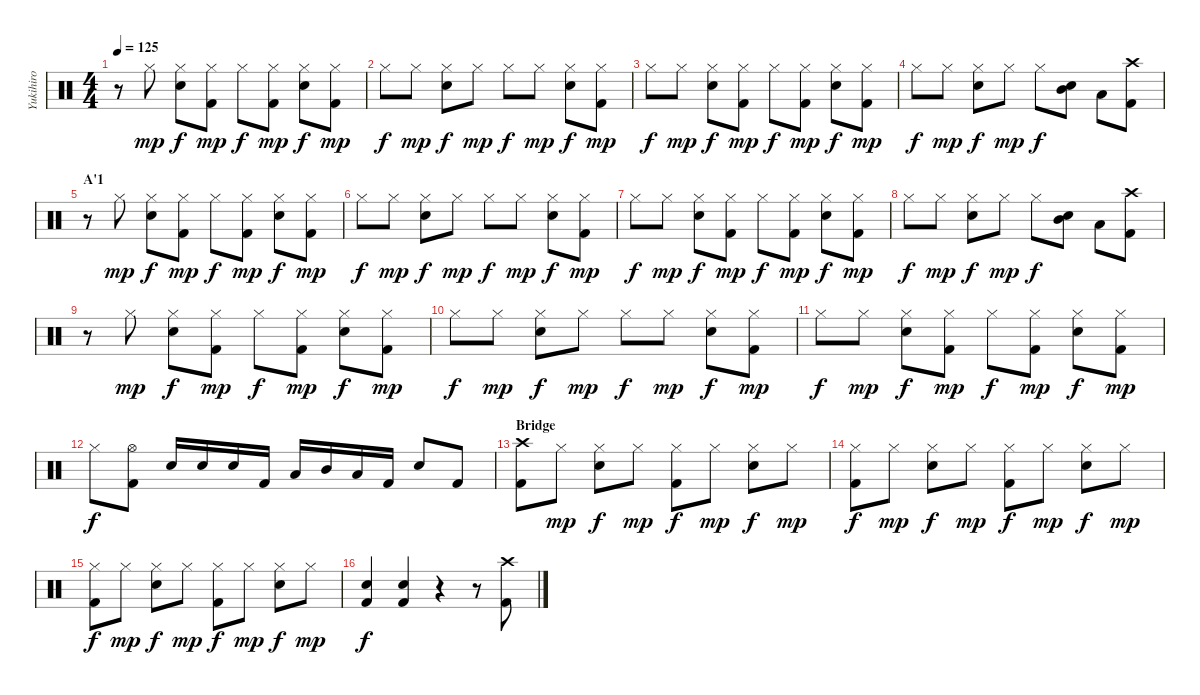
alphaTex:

\track ("Yukihiro" "Yukihiro") {instrument percussion}
\staff {score}
\articulation defaults
\ts (4 4)
\tempo 125
\clef neutral
\ks c
r.8{dy f} "Hi-Hat (closed)".8{dy mp} ("Hi-Hat (closed)" "Electric Snare (hit)").8{dy f} ("Hi-Hat (closed)" "Kick (hit) 2").8{dy mp} "Hi-Hat (closed)".8{dy f} ("Hi-Hat (closed)" "Kick (hit) 2").8{dy mp} ("Hi-Hat (closed)" "Electric Snare (hit)").8{dy f} ("Hi-Hat (closed)" "Kick (hit) 2").8{dy mp} |
"Hi-Hat (closed)".8{dy f} "Hi-Hat (closed)".8{dy mp} ("Hi-Hat (closed)" "Electric Snare (hit)").8{dy f} "Hi-Hat (closed)".8{dy mp} "Hi-Hat (closed)".8{dy f} "Hi-Hat (closed)".8{dy mp} ("Hi-Hat (closed)" "Electric Snare (hit)").8{dy f} ("Hi-Hat (closed)" "Kick (hit) 2").8{dy mp} |
"Hi-Hat (closed)".8{dy f} "Hi-Hat (closed)".8{dy mp} ("Hi-Hat (closed)" "Electric Snare (hit)").8{dy f} ("Hi-Hat (closed)" "Kick (hit) 2").8{dy mp} "Hi-Hat (closed)".8{dy f} ("Hi-Hat (closed)" "Kick (hit) 2").8{dy mp} ("Hi-Hat (closed)" "Electric Snare (hit)").8{dy f} ("Hi-Hat (closed)" "Kick (hit) 2").8{dy mp} |
"Hi-Hat (closed)".8{dy f} "Hi-Hat (closed)".8{dy mp} ("Hi-Hat (closed)" "Electric Snare (hit)").8{dy f} "Hi-Hat (closed)".8{dy mp} "Hi-Hat (closed)".8{dy f} ("Electric Snare (hit)" "Mid Tom (hit)").8 "Low Tom (hit)".8 ("Crash high (hit)" "Kick (hit) 2").8 |
\section ("" "A'1")
r.8 "Hi-Hat (closed)".8{dy mp} ("Hi-Hat (closed)" "Electric Snare (hit)").8{dy f} ("Hi-Hat (closed)" "Kick (hit) 2").8{dy mp} "Hi-Hat (closed)".8{dy f} ("Hi-Hat (closed)" "Kick (hit) 2").8{dy mp} ("Hi-Hat (closed)" "Electric Snare (hit)").8{dy f} ("Hi-Hat (closed)" "Kick (hit) 2").8{dy mp} |
"Hi-Hat (closed)".8{dy f} "Hi-Hat (closed)".8{dy mp} ("Hi-Hat (closed)" "Electric Snare (hit)").8{dy f} "Hi-Hat (closed)".8{dy mp} "Hi-Hat (closed)".8{dy f} "Hi-Hat (closed)".8{dy mp} ("Hi-Hat (closed)" "Electric Snare (hit)").8{dy f} ("Hi-Hat (closed)" "Kick (hit) 2").8{dy mp} |
"Hi-Hat (closed)".8{dy f} "Hi-Hat (closed)".8{dy mp} ("Hi-Hat (closed)" "Electric Snare (hit)").8{dy f} ("Hi-Hat (closed)" "Kick (hit) 2").8{dy mp} "Hi-Hat (closed)".8{dy f} ("Hi-Hat (closed)" "Kick (hit) 2").8{dy mp} ("Hi-Hat (closed)" "Electric Snare (hit)").8{dy f} ("Hi-Hat (closed)" "Kick (hit) 2").8{dy mp} |
"Hi-Hat (closed)".8{dy f} "Hi-Hat (closed)".8{dy mp} ("Hi-Hat (closed)" "Electric Snare (hit)").8{dy f} "Hi-Hat (closed)".8{dy mp} "Hi-Hat (closed)".8{dy f} ("Electric Snare (hit)" "Mid Tom (hit)").8 "Low Tom (hit)".8 ("Crash high (hit)" "Kick (hit) 2").8 |
r.8 "Hi-Hat (closed)".8{dy mp} ("Hi-Hat (closed)" "Electric Snare (hit)").8{dy f} ("Hi-Hat (closed)" "Kick (hit) 2").8{dy mp} "Hi-Hat (closed)".8{dy f} ("Hi-Hat (closed)" "Kick (hit) 2").8{dy mp} ("Hi-Hat (closed)" "Electric Snare (hit)").8{dy f} ("Hi-Hat (closed)" "Kick (hit) 2").8{dy mp} |
"Hi-Hat (closed)".8{dy f} "Hi-Hat (closed)".8{dy mp} ("Hi-Hat (closed)" "Electric Snare (hit)").8{dy f} "Hi-Hat (closed)".8{dy mp} "Hi-Hat (closed)".8{dy f} "Hi-Hat (closed)".8{dy mp} ("Hi-Hat (closed)" "Electric Snare (hit)").8{dy f} ("Hi-Hat (closed)" "Kick (hit) 2").8{dy mp} |
"Hi-Hat (closed)".8{dy f} "Hi-Hat (closed)".8{dy mp} ("Hi-Hat (closed)" "Electric Snare (hit)").8{dy f} ("Hi-Hat (closed)" "Kick (hit) 2").8{dy mp} "Hi-Hat (closed)".8{dy f} ("Hi-Hat (closed)" "Kick (hit) 2").8{dy mp} ("Hi-Hat (closed)" "Electric Snare (hit)").8{dy f} ("Hi-Hat (closed)" "Kick (hit) 2").8{dy mp} |
"Hi-Hat (closed)".8{dy f} ("Hi-Hat (open)" "Kick (hit) 2").8 "Electric Snare (hit)".16 "Electric Snare (hit)".16 "Electric Snare (hit)".16 "Kick (hit) 2".16 "Low Tom (hit)".16 "Mid Tom (hit)".16 "Low Tom (hit)".16 "Kick (hit) 2".16 "Electric Snare (hit)".8 "Kick (hit) 2".8 |
\section ("" "Bridge")
("Crash high (hit)" "Kick (hit) 2").8 "Hi-Hat (closed)".8{dy mp} ("Hi-Hat (closed)" "Electric Snare (hit)").8{dy f} "Hi-Hat (closed)".8{dy mp} ("Hi-Hat (closed)" "Kick (hit) 2").8{dy f} "Hi-Hat (closed)".8{dy mp} ("Hi-Hat (closed)" "Electric Snare (hit)").8{dy f} "Hi-Hat (closed)".8{dy mp} |
("Hi-Hat (closed)" "Kick (hit) 2").8{dy f} "Hi-Hat (closed)".8{dy mp} ("Hi-Hat (closed)" "Electric Snare (hit)").8{dy f} "Hi-Hat (closed)".8{dy mp} ("Hi-Hat (closed)" "Kick (hit) 2").8{dy f} "Hi-Hat (closed)".8{dy mp} ("Hi-Hat (closed)" "Electric Snare (hit)").8{dy f} "Hi-Hat (closed)".8{dy mp} |
("Hi-Hat (closed)" "Kick (hit) 2").8{dy f} "Hi-Hat (closed)".8{dy mp} ("Hi-Hat (closed)" "Electric Snare (hit)").8{dy f} "Hi-Hat (closed)".8{dy mp} ("Hi-Hat (closed)" "Kick (hit) 2").8{dy f} "Hi-Hat (closed)".8{dy mp} ("Hi-Hat (closed)" "Electric Snare (hit)").8{dy f} "Hi-Hat (closed)".8{dy mp} |
("Electric Snare (hit)" "Kick (hit) 2").4{dy f} ("Electric Snare (hit)" "Kick (hit) 2").4 r.4 r.8 ("Crash high (hit)" "Kick (hit) 2").8
